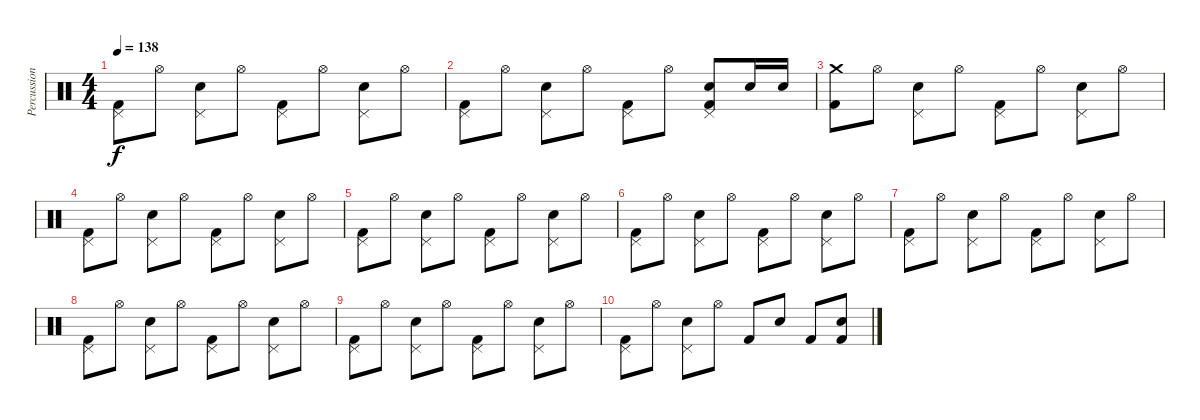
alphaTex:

\track ("Percussion" "Percussion") {instrument percussion}
\staff {score}
\articulation defaults
\ts (4 4)
\tempo 138
\clef neutral
\ks c
("Pedal Hi-Hat (hit)" "Kick (hit) 2").8{dy f} "Hi-Hat (open)".8 ("Pedal Hi-Hat (hit)" "Snare (hit) 2").8 "Hi-Hat (open)".8 ("Pedal Hi-Hat (hit)" "Kick (hit) 2").8 "Hi-Hat (open)".8 ("Pedal Hi-Hat (hit)" "Snare (hit) 2").8 "Hi-Hat (open)".8 |
("Pedal Hi-Hat (hit)" "Kick (hit) 2").8 "Hi-Hat (open)".8 ("Pedal Hi-Hat (hit)" "Snare (hit) 2").8 "Hi-Hat (open)".8 ("Pedal Hi-Hat (hit)" "Kick (hit) 2").8 "Hi-Hat (open)".8 ("Pedal Hi-Hat (hit)" "Snare (hit) 2" "Kick (hit) 2").8 "Snare (hit) 2".16 "Snare (hit) 2".16 |
("Crash medium (hit)" "Kick (hit) 2").8 "Hi-Hat (open)".8 ("Pedal Hi-Hat (hit)" "Snare (hit) 2").8 "Hi-Hat (open)".8 ("Pedal Hi-Hat (hit)" "Kick (hit) 2").8 "Hi-Hat (open)".8 ("Pedal Hi-Hat (hit)" "Snare (hit) 2").8 "Hi-Hat (open)".8 |
("Pedal Hi-Hat (hit)" "Kick (hit) 2").8 "Hi-Hat (open)".8 ("Pedal Hi-Hat (hit)" "Snare (hit) 2").8 "Hi-Hat (open)".8 ("Pedal Hi-Hat (hit)" "Kick (hit) 2").8 "Hi-Hat (open)".8 ("Pedal Hi-Hat (hit)" "Snare (hit) 2").8 "Hi-Hat (open)".8 |
("Pedal Hi-Hat (hit)" "Kick (hit) 2").8 "Hi-Hat (open)".8 ("Pedal Hi-Hat (hit)" "Snare (hit) 2").8 "Hi-Hat (open)".8 ("Pedal Hi-Hat (hit)" "Kick (hit) 2").8 "Hi-Hat (open)".8 ("Pedal Hi-Hat (hit)" "Snare (hit) 2").8 "Hi-Hat (open)".8 |
("Pedal Hi-Hat (hit)" "Kick (hit) 2").8 "Hi-Hat (open)".8 ("Pedal Hi-Hat (hit)" "Snare (hit) 2").8 "Hi-Hat (open)".8 ("Pedal Hi-Hat (hit)" "Kick (hit) 2").8 "Hi-Hat (open)".8 ("Pedal Hi-Hat (hit)" "Snare (hit) 2").8 "Hi-Hat (open)".8 |
("Pedal Hi-Hat (hit)" "Kick (hit) 2").8 "Hi-Hat (open)".8 ("Pedal Hi-Hat (hit)" "Snare (hit) 2").8 "Hi-Hat (open)".8 ("Pedal Hi-Hat (hit)" "Kick (hit) 2").8 "Hi-Hat (open)".8 ("Pedal Hi-Hat (hit)" "Snare (hit) 2").8 "Hi-Hat (open)".8 |
("Pedal Hi-Hat (hit)" "Kick (hit) 2").8 "Hi-Hat (open)".8 ("Pedal Hi-Hat (hit)" "Snare (hit) 2").8 "Hi-Hat (open)".8 ("Pedal Hi-Hat (hit)" "Kick (hit) 2").8 "Hi-Hat (open)".8 ("Pedal Hi-Hat (hit)" "Snare (hit) 2").8 "Hi-Hat (open)".8 |
("Pedal Hi-Hat (hit)" "Kick (hit) 2").8 "Hi-Hat (open)".8 ("Pedal Hi-Hat (hit)" "Snare (hit) 2").8 "Hi-Hat (open)".8 ("Pedal Hi-Hat (hit)" "Kick (hit) 2").8 "Hi-Hat (open)".8 ("Pedal Hi-Hat (hit)" "Snare (hit) 2").8 "Hi-Hat (open)".8 |
("Pedal Hi-Hat (hit)" "Kick (hit) 2").8 "Hi-Hat (open)".8 ("Pedal Hi-Hat (hit)" "Snare (hit) 2").8 "Hi-Hat (open)".8 "Kick (hit) 2".8 "Snare (hit) 2".8 "Kick (hit) 2".8 ("Snare (hit) 2" "Kick (hit) 2").8
